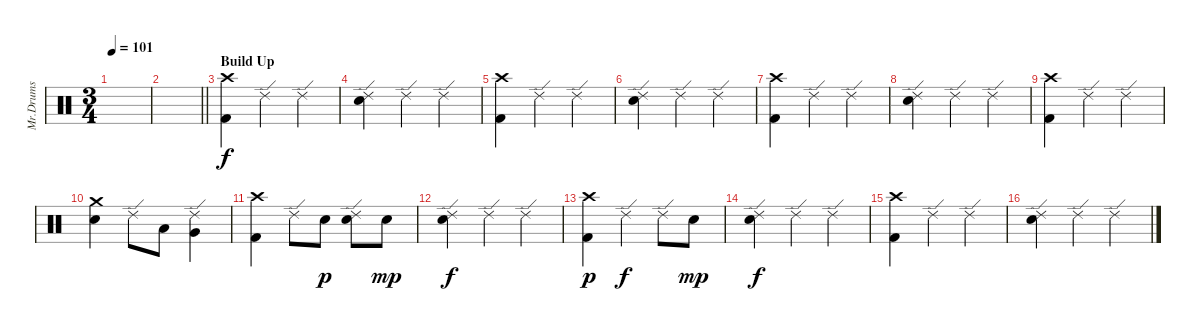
\track ("Mr.Drums" "Mr.Drums") {instrument percussion}
\staff {score}
\articulation defaults
\ts (3 4)
\tempo 101
\clef neutral
\ks c
|
\barLineRight lightlight
|
\section ("" "Build Up")
("Crash high (hit)" "Kick (hit) 2").4 "Ride (edge) 2".4 "Ride (edge) 2".4 |
("Ride (edge) 2" "Electric Snare (hit)").4 "Ride (edge) 2".4 "Ride (edge) 2".4 |
("Crash high (hit)" "Kick (hit) 2").4 "Ride (edge) 2".4 "Ride (edge) 2".4 |
("Ride (edge) 2" "Electric Snare (hit)").4 "Ride (edge) 2".4 "Ride (edge) 2".4 |
("Crash high (hit)" "Kick (hit) 2").4 "Ride (edge) 2".4 "Ride (edge) 2".4 |
("Ride (edge) 2" "Electric Snare (hit)").4 "Ride (edge) 2".4 "Ride (edge) 2".4 |
("Crash high (hit)" "Kick (hit) 2").4 "Ride (edge) 2".4 "Ride (edge) 2".4 |
("Crash medium (hit)" "Electric Snare (hit)").4 "Ride (edge) 2".8 "Low Tom (hit)".8 ("Ride (edge) 2" "Very Low Tom (hit)").4 |
("Crash high (hit)" "Kick (hit) 2").4 "Ride (edge) 2".8 "Electric Snare (hit)".8{dy p} ("Ride (edge) 2" "Electric Snare (hit)").8 "Electric Snare (hit)".8{dy mp} |
("Ride (edge) 2" "Electric Snare (hit)").4{dy f} "Ride (edge) 2".4 "Ride (edge) 2".4 |
("Crash high (hit)" "Kick (hit) 2").4{dy p} "Ride (edge) 2".4{dy f} "Ride (edge) 2".8 "Electric Snare (hit)".8{dy mp} |
("Ride (edge) 2" "Electric Snare (hit)").4{dy f} "Ride (edge) 2".4 "Ride (edge) 2".4 |
("Crash high (hit)" "Kick (hit) 2").4 "Ride (edge) 2".4 "Ride (edge) 2".4 |
("Ride (edge) 2" "Electric Snare (hit)").4 "Ride (edge) 2".4 "Ride (edge) 2".4
